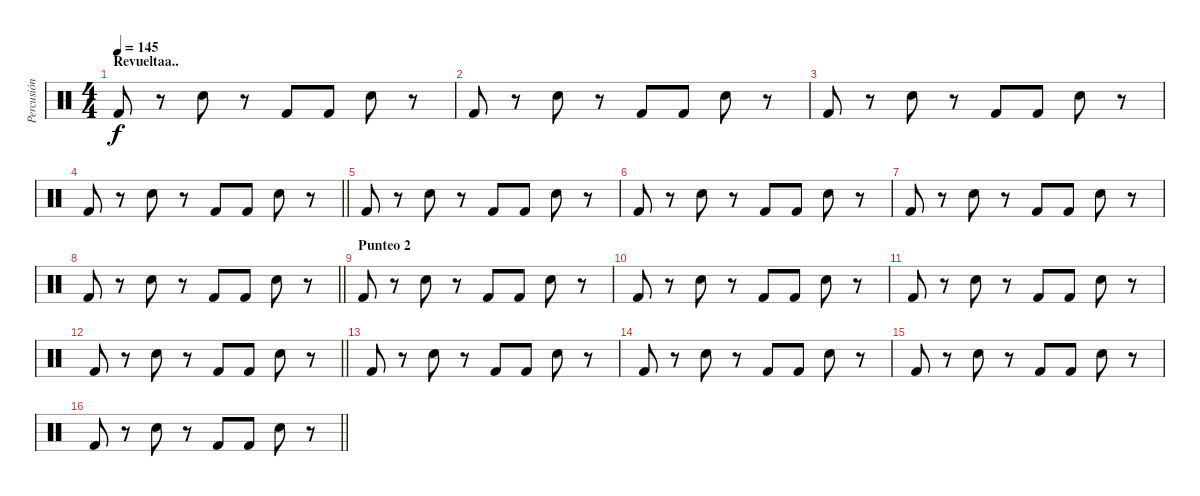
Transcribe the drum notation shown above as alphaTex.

\track ("Percusión" "Percusión") {instrument percussion}
\staff {score}
\articulation defaults
\ts (4 4)
\section ("" "Revueltaa..")
\tempo 145
\clef neutral
\ks c "Kick (hit) 2".8{dy f}
r.8 "Snare (hit) 2".8 r.8 "Kick (hit) 2".8 "Kick (hit) 2".8 "Snare (hit) 2".8 r.8 |
"Kick (hit) 2".8 r.8 "Snare (hit) 2".8 r.8 "Kick (hit) 2".8 "Kick (hit) 2".8 "Snare (hit) 2".8 r.8 |
"Kick (hit) 2".8 r.8 "Snare (hit) 2".8 r.8 "Kick (hit) 2".8 "Kick (hit) 2".8 "Snare (hit) 2".8 r.8 |
\barLineRight lightlight "Kick (hit) 2".8
r.8 "Snare (hit) 2".8 r.8 "Kick (hit) 2".8 "Kick (hit) 2".8 "Snare (hit) 2".8 r.8 |
"Kick (hit) 2".8 r.8 "Snare (hit) 2".8 r.8 "Kick (hit) 2".8 "Kick (hit) 2".8 "Snare (hit) 2".8 r.8 |
"Kick (hit) 2".8 r.8 "Snare (hit) 2".8 r.8 "Kick (hit) 2".8 "Kick (hit) 2".8 "Snare (hit) 2".8 r.8 |
"Kick (hit) 2".8 r.8 "Snare (hit) 2".8 r.8 "Kick (hit) 2".8 "Kick (hit) 2".8 "Snare (hit) 2".8 r.8 |
\barLineRight lightlight "Kick (hit) 2".8
r.8 "Snare (hit) 2".8 r.8 "Kick (hit) 2".8 "Kick (hit) 2".8 "Snare (hit) 2".8 r.8 |
\section ("" "Punteo 2")
"Kick (hit) 2".8 r.8 "Snare (hit) 2".8 r.8 "Kick (hit) 2".8 "Kick (hit) 2".8 "Snare (hit) 2".8 r.8 |
"Kick (hit) 2".8 r.8 "Snare (hit) 2".8 r.8 "Kick (hit) 2".8 "Kick (hit) 2".8 "Snare (hit) 2".8 r.8 |
"Kick (hit) 2".8 r.8 "Snare (hit) 2".8 r.8 "Kick (hit) 2".8 "Kick (hit) 2".8 "Snare (hit) 2".8 r.8 |
\barLineRight lightlight "Kick (hit) 2".8
r.8 "Snare (hit) 2".8 r.8 "Kick (hit) 2".8 "Kick (hit) 2".8 "Snare (hit) 2".8 r.8 |
"Kick (hit) 2".8 r.8 "Snare (hit) 2".8 r.8 "Kick (hit) 2".8 "Kick (hit) 2".8 "Snare (hit) 2".8 r.8 |
"Kick (hit) 2".8 r.8 "Snare (hit) 2".8 r.8 "Kick (hit) 2".8 "Kick (hit) 2".8 "Snare (hit) 2".8 r.8 |
"Kick (hit) 2".8 r.8 "Snare (hit) 2".8 r.8 "Kick (hit) 2".8 "Kick (hit) 2".8 "Snare (hit) 2".8 r.8 |
\barLineRight lightlight "Kick (hit) 2".8
r.8 "Snare (hit) 2".8 r.8 "Kick (hit) 2".8 "Kick (hit) 2".8 "Snare (hit) 2".8 r.8
